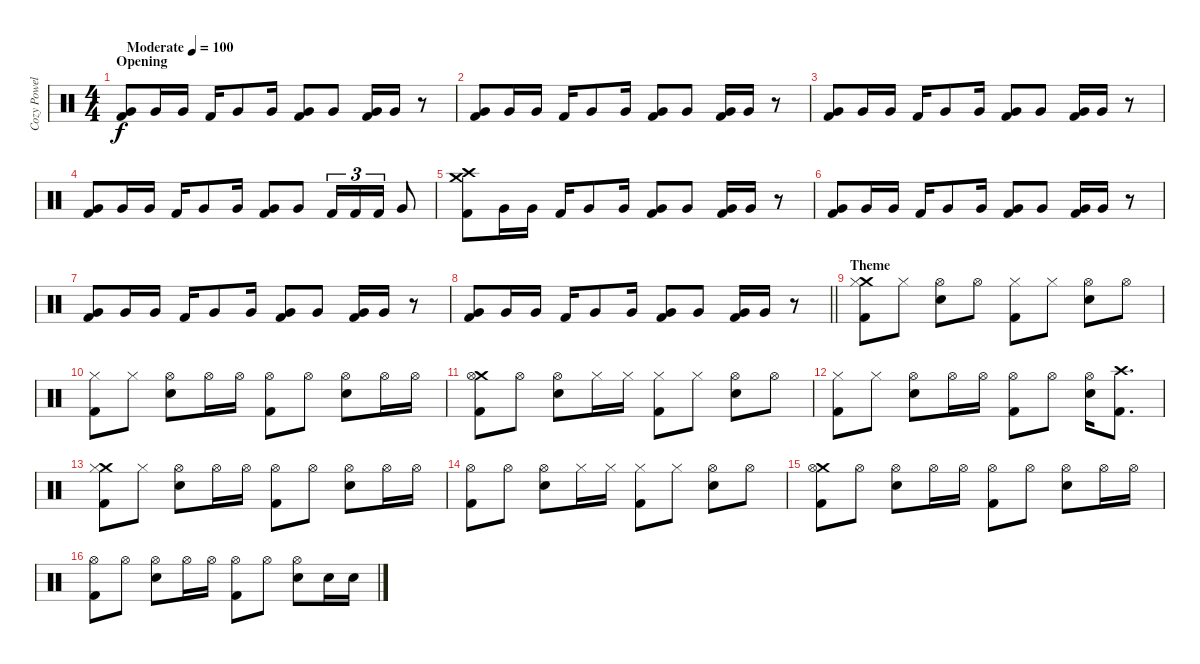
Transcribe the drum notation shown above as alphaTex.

\track ("Cozy Powell " "Cozy Powel") {instrument percussion}
\staff {score}
\articulation defaults
\ts (4 4)
\section ("" "Opening")
\tempo (100 "Moderate")
\clef neutral
\ks c
("Very Low Tom (hit)" "Kick (hit) 2").8{dy f} "Very Low Tom (hit)".16 "Very Low Tom (hit)".16 "Kick (hit) 2".16 "Very Low Tom (hit)".8 "Very Low Tom (hit)".16 ("Very Low Tom (hit)" "Kick (hit) 2").8 "Very Low Tom (hit)".8 ("Very Low Tom (hit)" "Kick (hit) 2").16 "Very Low Tom (hit)".16 r.8 |
("Very Low Tom (hit)" "Kick (hit) 2").8 "Very Low Tom (hit)".16 "Very Low Tom (hit)".16 "Kick (hit) 2".16 "Very Low Tom (hit)".8 "Very Low Tom (hit)".16 ("Very Low Tom (hit)" "Kick (hit) 2").8 "Very Low Tom (hit)".8 ("Very Low Tom (hit)" "Kick (hit) 2").16 "Very Low Tom (hit)".16 r.8 |
("Very Low Tom (hit)" "Kick (hit) 2").8 "Very Low Tom (hit)".16 "Very Low Tom (hit)".16 "Kick (hit) 2".16 "Very Low Tom (hit)".8 "Very Low Tom (hit)".16 ("Very Low Tom (hit)" "Kick (hit) 2").8 "Very Low Tom (hit)".8 ("Very Low Tom (hit)" "Kick (hit) 2").16 "Very Low Tom (hit)".16 r.8 |
("Very Low Tom (hit)" "Kick (hit) 2").8 "Very Low Tom (hit)".16 "Very Low Tom (hit)".16 "Kick (hit) 2".16 "Very Low Tom (hit)".8 "Very Low Tom (hit)".16 ("Very Low Tom (hit)" "Kick (hit) 2").8 "Very Low Tom (hit)".8 "Kick (hit) 2".16{tu (3 2)} "Kick (hit) 2".16{tu (3 2)} "Kick (hit) 2".16{tu (3 2)} "Very Low Tom (hit)".8 |
("Crash medium (hit)" "Crash high (hit)" "Kick (hit) 2").8 "Very Low Tom (hit)".16 "Very Low Tom (hit)".16 "Kick (hit) 2".16 "Very Low Tom (hit)".8 "Very Low Tom (hit)".16 ("Very Low Tom (hit)" "Kick (hit) 2").8 "Very Low Tom (hit)".8 ("Very Low Tom (hit)" "Kick (hit) 2").16 "Very Low Tom (hit)".16 r.8 |
("Very Low Tom (hit)" "Kick (hit) 2").8 "Very Low Tom (hit)".16 "Very Low Tom (hit)".16 "Kick (hit) 2".16 "Very Low Tom (hit)".8 "Very Low Tom (hit)".16 ("Very Low Tom (hit)" "Kick (hit) 2").8 "Very Low Tom (hit)".8 ("Very Low Tom (hit)" "Kick (hit) 2").16 "Very Low Tom (hit)".16 r.8 |
("Very Low Tom (hit)" "Kick (hit) 2").8 "Very Low Tom (hit)".16 "Very Low Tom (hit)".16 "Kick (hit) 2".16 "Very Low Tom (hit)".8 "Very Low Tom (hit)".16 ("Very Low Tom (hit)" "Kick (hit) 2").8 "Very Low Tom (hit)".8 ("Very Low Tom (hit)" "Kick (hit) 2").16 "Very Low Tom (hit)".16 r.8 |
\barLineRight lightlight
("Very Low Tom (hit)" "Kick (hit) 2").8 "Very Low Tom (hit)".16 "Very Low Tom (hit)".16 "Kick (hit) 2".16 "Very Low Tom (hit)".8 "Very Low Tom (hit)".16 ("Very Low Tom (hit)" "Kick (hit) 2").8 "Very Low Tom (hit)".8 ("Very Low Tom (hit)" "Kick (hit) 2").16 "Very Low Tom (hit)".16 r.8 |
\section ("" "Theme")
("Crash medium (hit)" "Hi-Hat (closed)" "Kick (hit) 2").8 "Hi-Hat (closed)".8 ("Hi-Hat (open)" "Snare (hit) 2").8 "Hi-Hat (open)".8 ("Hi-Hat (closed)" "Kick (hit) 2").8 "Hi-Hat (closed)".8 ("Hi-Hat (open)" "Snare (hit) 2").8 "Hi-Hat (open)".8 |
("Hi-Hat (closed)" "Kick (hit) 2").8 "Hi-Hat (closed)".8 ("Hi-Hat (open)" "Snare (hit) 2").8 "Hi-Hat (open)".16 "Hi-Hat (open)".16 ("Hi-Hat (open)" "Kick (hit) 2").8 "Hi-Hat (open)".8 ("Hi-Hat (open)" "Snare (hit) 2").8 "Hi-Hat (open)".16 "Hi-Hat (open)".16 |
("Crash medium (hit)" "Hi-Hat (open)" "Kick (hit) 2").8 "Hi-Hat (open)".8 ("Hi-Hat (open)" "Snare (hit) 2").8 "Hi-Hat (closed)".16 "Hi-Hat (closed)".16 ("Hi-Hat (closed)" "Kick (hit) 2").8 "Hi-Hat (closed)".8 ("Hi-Hat (open)" "Snare (hit) 2").8 "Hi-Hat (open)".8 |
("Hi-Hat (closed)" "Kick (hit) 2").8 "Hi-Hat (closed)".8 ("Hi-Hat (open)" "Snare (hit) 2").8 "Hi-Hat (open)".16 "Hi-Hat (open)".16 ("Hi-Hat (open)" "Kick (hit) 2").8 "Hi-Hat (open)".8 ("Hi-Hat (open)" "Snare (hit) 2").16 ("Crash high (hit)" "Kick (hit) 2").8{d} |
("Crash medium (hit)" "Hi-Hat (closed)" "Kick (hit) 2").8 "Hi-Hat (closed)".8 ("Hi-Hat (open)" "Snare (hit) 2").8 "Hi-Hat (open)".16 "Hi-Hat (open)".16 ("Hi-Hat (open)" "Kick (hit) 2").8 "Hi-Hat (open)".8 ("Hi-Hat (open)" "Snare (hit) 2").8 "Hi-Hat (open)".16 "Hi-Hat (open)".16 |
("Hi-Hat (open)" "Kick (hit) 2").8 "Hi-Hat (open)".8 ("Hi-Hat (open)" "Snare (hit) 2").8 "Hi-Hat (closed)".16 "Hi-Hat (closed)".16 ("Hi-Hat (closed)" "Kick (hit) 2").8 "Hi-Hat (closed)".8 ("Hi-Hat (open)" "Snare (hit) 2").8 "Hi-Hat (open)".8 |
("Crash medium (hit)" "Hi-Hat (open)" "Kick (hit) 2").8 "Hi-Hat (open)".8 ("Hi-Hat (open)" "Snare (hit) 2").8 "Hi-Hat (open)".16 "Hi-Hat (open)".16 ("Hi-Hat (open)" "Kick (hit) 2").8 "Hi-Hat (open)".8 ("Hi-Hat (open)" "Snare (hit) 2").8 "Hi-Hat (open)".16 "Hi-Hat (open)".16 |
("Hi-Hat (open)" "Kick (hit) 2").8 "Hi-Hat (open)".8 ("Hi-Hat (open)" "Snare (hit) 2").8 "Hi-Hat (open)".16 "Hi-Hat (open)".16 ("Hi-Hat (open)" "Kick (hit) 2").8 "Hi-Hat (open)".8 ("Hi-Hat (open)" "Snare (hit) 2").8 "Snare (hit) 2".16 "Snare (hit) 2".16
